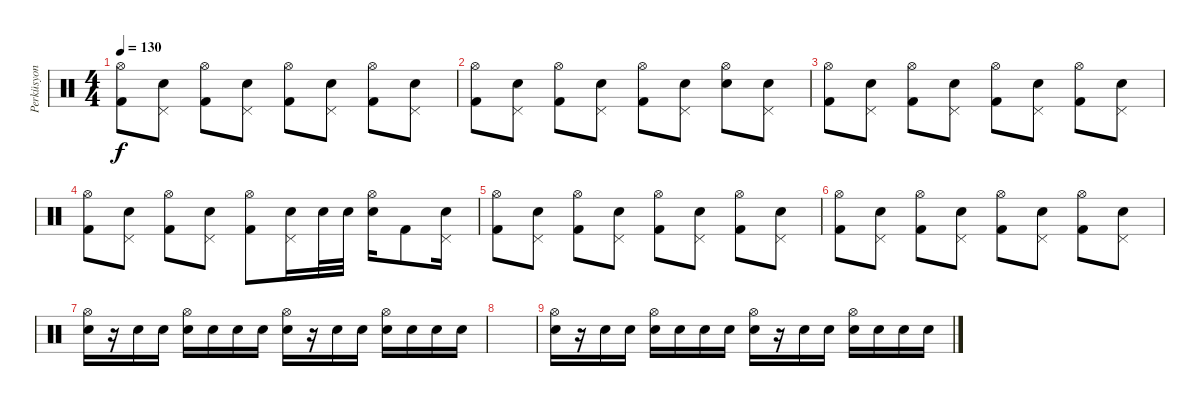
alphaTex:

\track ("Perküsyon" "Perküsyon") {instrument percussion}
\staff {score}
\articulation defaults
\ts (4 4)
\tempo 130
\clef neutral
\ks c
("Hi-Hat (open)" "Kick (hit) 2").8{dy f} ("Pedal Hi-Hat (hit)" "Electric Snare (hit)").8 ("Hi-Hat (open)" "Kick (hit) 2").8 ("Pedal Hi-Hat (hit)" "Electric Snare (hit)").8 ("Hi-Hat (open)" "Kick (hit) 2").8 ("Pedal Hi-Hat (hit)" "Electric Snare (hit)").8 ("Hi-Hat (open)" "Kick (hit) 2").8 ("Pedal Hi-Hat (hit)" "Electric Snare (hit)").8 |
("Hi-Hat (open)" "Kick (hit) 2").8 ("Pedal Hi-Hat (hit)" "Electric Snare (hit)").8 ("Hi-Hat (open)" "Kick (hit) 2").8 ("Pedal Hi-Hat (hit)" "Electric Snare (hit)").8 ("Hi-Hat (open)" "Kick (hit) 2").8 ("Pedal Hi-Hat (hit)" "Electric Snare (hit)").8 ("Hi-Hat (open)" "Electric Snare (hit)").8 ("Pedal Hi-Hat (hit)" "Electric Snare (hit)").8 |
("Hi-Hat (open)" "Kick (hit) 2").8 ("Pedal Hi-Hat (hit)" "Electric Snare (hit)").8 ("Hi-Hat (open)" "Kick (hit) 2").8 ("Pedal Hi-Hat (hit)" "Electric Snare (hit)").8 ("Hi-Hat (open)" "Kick (hit) 2").8 ("Pedal Hi-Hat (hit)" "Electric Snare (hit)").8 ("Hi-Hat (open)" "Kick (hit) 2").8 ("Pedal Hi-Hat (hit)" "Electric Snare (hit)").8 |
("Hi-Hat (open)" "Kick (hit) 2").8 ("Pedal Hi-Hat (hit)" "Electric Snare (hit)").8 ("Hi-Hat (open)" "Kick (hit) 2").8 ("Pedal Hi-Hat (hit)" "Electric Snare (hit)").8 ("Hi-Hat (open)" "Kick (hit) 2").8 ("Pedal Hi-Hat (hit)" "Electric Snare (hit)").16 "Electric Snare (hit)".32 "Electric Snare (hit)".32 ("Hi-Hat (open)" "Electric Snare (hit)").16 "Kick (hit) 2".8 ("Pedal Hi-Hat (hit)" "Electric Snare (hit)").16 |
("Hi-Hat (open)" "Kick (hit) 2").8 ("Pedal Hi-Hat (hit)" "Electric Snare (hit)").8 ("Hi-Hat (open)" "Kick (hit) 2").8 ("Pedal Hi-Hat (hit)" "Electric Snare (hit)").8 ("Hi-Hat (open)" "Kick (hit) 2").8 ("Pedal Hi-Hat (hit)" "Electric Snare (hit)").8 ("Hi-Hat (open)" "Kick (hit) 2").8 ("Pedal Hi-Hat (hit)" "Electric Snare (hit)").8 |
("Hi-Hat (open)" "Kick (hit) 2").8 ("Pedal Hi-Hat (hit)" "Electric Snare (hit)").8 ("Hi-Hat (open)" "Kick (hit) 2").8 ("Pedal Hi-Hat (hit)" "Electric Snare (hit)").8 ("Hi-Hat (open)" "Kick (hit) 2").8 ("Pedal Hi-Hat (hit)" "Electric Snare (hit)").8 ("Hi-Hat (open)" "Kick (hit) 2").8 ("Pedal Hi-Hat (hit)" "Electric Snare (hit)").8 |
("Hi-Hat (open)" "Electric Snare (hit)").16 r.16 "Electric Snare (hit)".16 "Electric Snare (hit)".16 ("Hi-Hat (open)" "Electric Snare (hit)").16 "Electric Snare (hit)".16 "Electric Snare (hit)".16 "Electric Snare (hit)".16 ("Hi-Hat (open)" "Electric Snare (hit)").16 r.16 "Electric Snare (hit)".16 "Electric Snare (hit)".16 ("Hi-Hat (open)" "Electric Snare (hit)").16 "Electric Snare (hit)".16 "Electric Snare (hit)".16 "Electric Snare (hit)".16 |
|
("Hi-Hat (open)" "Electric Snare (hit)").16 r.16 "Electric Snare (hit)".16 "Electric Snare (hit)".16 ("Hi-Hat (open)" "Electric Snare (hit)").16 "Electric Snare (hit)".16 "Electric Snare (hit)".16 "Electric Snare (hit)".16 ("Hi-Hat (open)" "Electric Snare (hit)").16 r.16 "Electric Snare (hit)".16 "Electric Snare (hit)".16 ("Hi-Hat (open)" "Electric Snare (hit)").16 "Electric Snare (hit)".16 "Electric Snare (hit)".16 "Electric Snare (hit)".16
